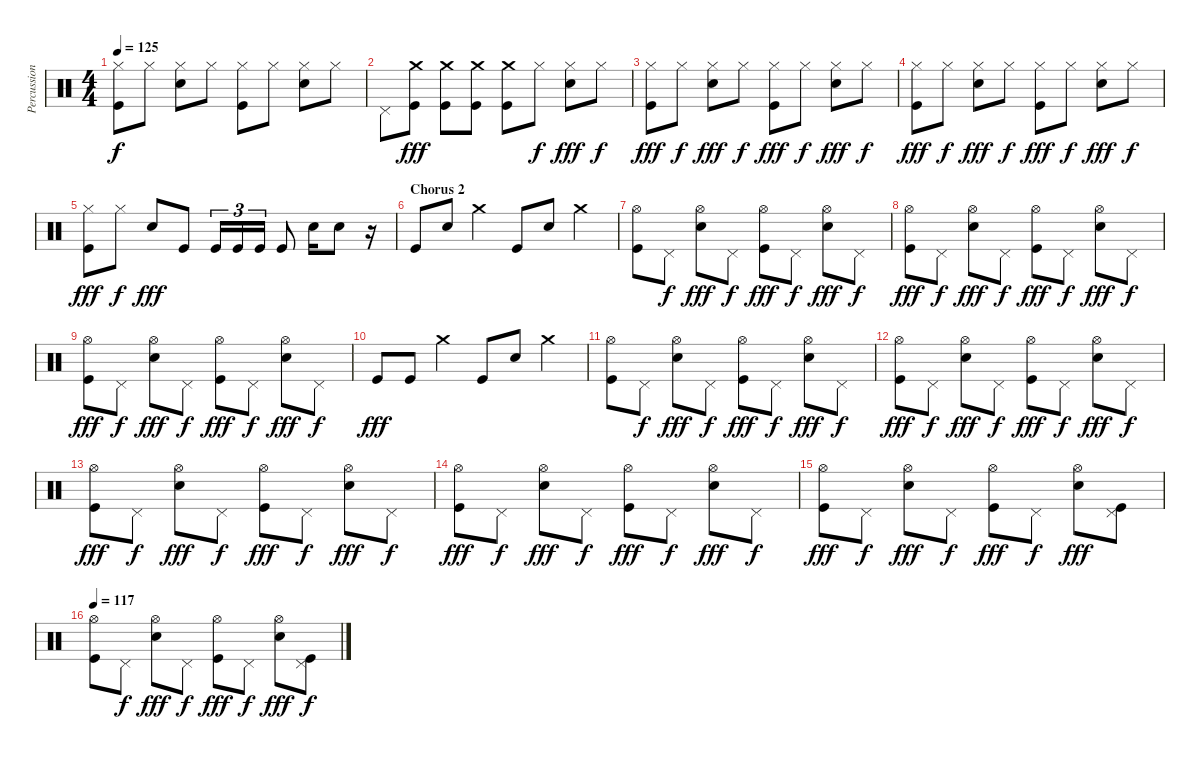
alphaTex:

\track ("Percussion" "Percussion") {instrument percussion}
\staff {score}
\articulation defaults
\ts (4 4)
\tempo 125
\clef neutral
\ks c
("Kick (hit)" "Hi-Hat (closed)").8{dy f} "Hi-Hat (closed)".8 ("Snare (hit) 2" "Hi-Hat (closed)").8 "Hi-Hat (closed)".8 ("Kick (hit)" "Hi-Hat (closed)").8 "Hi-Hat (closed)".8 ("Snare (hit) 2" "Hi-Hat (closed)").8 "Hi-Hat (closed)".8 |
"Pedal Hi-Hat (hit)".8 ("Kick (hit)" "Crash medium (hit)").8{dy fff} ("Kick (hit)" "Crash medium (hit)").8 ("Kick (hit)" "Crash medium (hit)").8 ("Kick (hit)" "Crash medium (hit)").8 "Hi-Hat (closed)".8{dy f} ("Snare (hit) 2" "Hi-Hat (closed)").8{dy fff} "Hi-Hat (closed)".8{dy f} |
("Kick (hit)" "Hi-Hat (closed)").8{dy fff} "Hi-Hat (closed)".8{dy f} ("Snare (hit) 2" "Hi-Hat (closed)").8{dy fff} "Hi-Hat (closed)".8{dy f} ("Kick (hit)" "Hi-Hat (closed)").8{dy fff} "Hi-Hat (closed)".8{dy f} ("Snare (hit) 2" "Hi-Hat (closed)").8{dy fff} "Hi-Hat (closed)".8{dy f} |
("Kick (hit)" "Hi-Hat (closed)").8{dy fff} "Hi-Hat (closed)".8{dy f} ("Snare (hit) 2" "Hi-Hat (closed)").8{dy fff} "Hi-Hat (closed)".8{dy f} ("Kick (hit)" "Hi-Hat (closed)").8{dy fff} "Hi-Hat (closed)".8{dy f} ("Snare (hit) 2" "Hi-Hat (closed)").8{dy fff} "Hi-Hat (closed)".8{dy f} |
("Kick (hit)" "Hi-Hat (closed)").8{dy fff} "Hi-Hat (closed)".8{dy f} "Snare (hit) 2".8{dy fff} "Kick (hit)".8 "Kick (hit)".16{tu (3 2)} "Kick (hit)".16{tu (3 2)} "Kick (hit)".16{tu (3 2)} "Kick (hit)".8 "Snare (hit) 2".16 "Snare (hit) 2".8 r.16 |
\section ("" "Chorus 2")
"Kick (hit)".8 "Snare (hit) 2".8 "Crash medium (hit)".4 "Kick (hit)".8 "Snare (hit) 2".8 "Crash medium (hit)".4 |
("Kick (hit)" "Hi-Hat (open)").8 "Pedal Hi-Hat (hit)".8{dy f} ("Snare (hit) 2" "Hi-Hat (open)").8{dy fff} "Pedal Hi-Hat (hit)".8{dy f} ("Kick (hit)" "Hi-Hat (open)").8{dy fff} "Pedal Hi-Hat (hit)".8{dy f} ("Snare (hit) 2" "Hi-Hat (open)").8{dy fff} "Pedal Hi-Hat (hit)".8{dy f} |
("Kick (hit)" "Hi-Hat (open)").8{dy fff} "Pedal Hi-Hat (hit)".8{dy f} ("Snare (hit) 2" "Hi-Hat (open)").8{dy fff} "Pedal Hi-Hat (hit)".8{dy f} ("Kick (hit)" "Hi-Hat (open)").8{dy fff} "Pedal Hi-Hat (hit)".8{dy f} ("Snare (hit) 2" "Hi-Hat (open)").8{dy fff} "Pedal Hi-Hat (hit)".8{dy f} |
("Kick (hit)" "Hi-Hat (open)").8{dy fff} "Pedal Hi-Hat (hit)".8{dy f} ("Snare (hit) 2" "Hi-Hat (open)").8{dy fff} "Pedal Hi-Hat (hit)".8{dy f} ("Kick (hit)" "Hi-Hat (open)").8{dy fff} "Pedal Hi-Hat (hit)".8{dy f} ("Snare (hit) 2" "Hi-Hat (open)").8{dy fff} "Pedal Hi-Hat (hit)".8{dy f} |
"Kick (hit)".8{dy fff} "Kick (hit)".8 "Crash medium (hit)".4 "Kick (hit)".8 "Snare (hit) 2".8 "Crash medium (hit)".4 |
("Kick (hit)" "Hi-Hat (open)").8 "Pedal Hi-Hat (hit)".8{dy f} ("Snare (hit) 2" "Hi-Hat (open)").8{dy fff} "Pedal Hi-Hat (hit)".8{dy f} ("Kick (hit)" "Hi-Hat (open)").8{dy fff} "Pedal Hi-Hat (hit)".8{dy f} ("Snare (hit) 2" "Hi-Hat (open)").8{dy fff} "Pedal Hi-Hat (hit)".8{dy f} |
("Kick (hit)" "Hi-Hat (open)").8{dy fff} "Pedal Hi-Hat (hit)".8{dy f} ("Snare (hit) 2" "Hi-Hat (open)").8{dy fff} "Pedal Hi-Hat (hit)".8{dy f} ("Kick (hit)" "Hi-Hat (open)").8{dy fff} "Pedal Hi-Hat (hit)".8{dy f} ("Snare (hit) 2" "Hi-Hat (open)").8{dy fff} "Pedal Hi-Hat (hit)".8{dy f} |
("Kick (hit)" "Hi-Hat (open)").8{dy fff} "Pedal Hi-Hat (hit)".8{dy f} ("Snare (hit) 2" "Hi-Hat (open)").8{dy fff} "Pedal Hi-Hat (hit)".8{dy f} ("Kick (hit)" "Hi-Hat (open)").8{dy fff} "Pedal Hi-Hat (hit)".8{dy f} ("Snare (hit) 2" "Hi-Hat (open)").8{dy fff} "Pedal Hi-Hat (hit)".8{dy f} |
("Kick (hit)" "Hi-Hat (open)").8{dy fff} "Pedal Hi-Hat (hit)".8{dy f} ("Snare (hit) 2" "Hi-Hat (open)").8{dy fff} "Pedal Hi-Hat (hit)".8{dy f} ("Kick (hit)" "Hi-Hat (open)").8{dy fff} "Pedal Hi-Hat (hit)".8{dy f} ("Snare (hit) 2" "Hi-Hat (open)").8{dy fff} "Pedal Hi-Hat (hit)".8{dy f} |
("Kick (hit)" "Hi-Hat (open)").8{dy fff} "Pedal Hi-Hat (hit)".8{dy f} ("Snare (hit) 2" "Hi-Hat (open)").8{dy fff} "Pedal Hi-Hat (hit)".8{dy f} ("Kick (hit)" "Hi-Hat (open)").8{dy fff} "Pedal Hi-Hat (hit)".8{dy f} ("Snare (hit) 2" "Hi-Hat (open)").8{dy fff} ("Kick (hit)" "Pedal Hi-Hat (hit)").8 |
\tempo 117
("Kick (hit)" "Hi-Hat (open)").8 "Pedal Hi-Hat (hit)".8{dy f} ("Snare (hit) 2" "Hi-Hat (open)").8{dy fff} "Pedal Hi-Hat (hit)".8{dy f} ("Kick (hit)" "Hi-Hat (open)").8{dy fff} "Pedal Hi-Hat (hit)".8{dy f} ("Snare (hit) 2" "Hi-Hat (open)").8{dy fff} ("Kick (hit)" "Pedal Hi-Hat (hit)").8{dy f}
